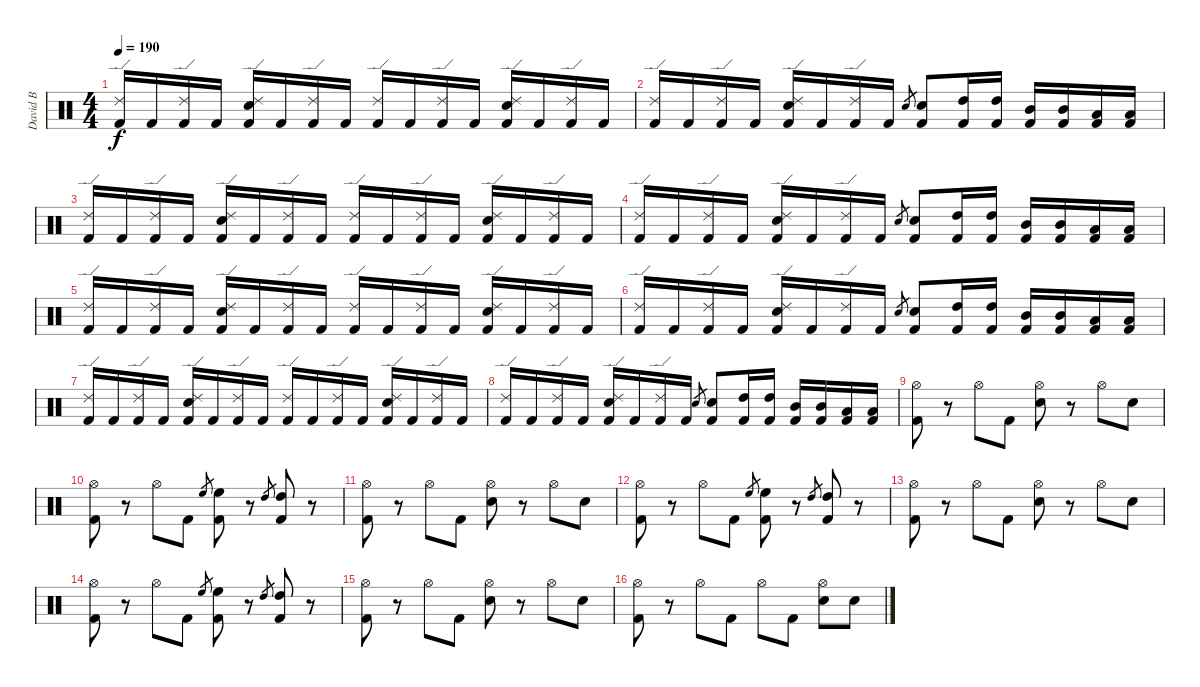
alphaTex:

\track ("David B" "David B") {instrument percussion}
\staff {score}
\articulation defaults
\ts (4 4)
\tempo 190
\clef neutral
\ks c
("Ride (edge) 2" "Kick (hit) 2").16{dy f} "Kick (hit) 2".16 ("Ride (edge) 2" "Kick (hit) 2").16 "Kick (hit) 2".16 ("Ride (edge) 2" "Electric Snare (hit)" "Kick (hit) 2").16 "Kick (hit) 2".16 ("Ride (edge) 2" "Kick (hit) 2").16 "Kick (hit) 2".16 ("Ride (edge) 2" "Kick (hit) 2").16 "Kick (hit) 2".16 ("Ride (edge) 2" "Kick (hit) 2").16 "Kick (hit) 2".16 ("Ride (edge) 2" "Electric Snare (hit)" "Kick (hit) 2").16 "Kick (hit) 2".16 ("Ride (edge) 2" "Kick (hit) 2").16 "Kick (hit) 2".16 |
("Ride (edge) 2" "Kick (hit) 2").16 "Kick (hit) 2".16 ("Ride (edge) 2" "Kick (hit) 2").16 "Kick (hit) 2".16 ("Ride (edge) 2" "Electric Snare (hit)" "Kick (hit) 2").16 "Kick (hit) 2".16 ("Ride (edge) 2" "Kick (hit) 2").16 "Kick (hit) 2".16 "Electric Snare (hit)".8{gr} ("Electric Snare (hit)" "Kick (hit) 2").8 ("High Tom (hit)" "Kick (hit) 2").16 ("High Tom (hit)" "Kick (hit) 2").16 ("Mid Tom (hit)" "Kick (hit) 2").16 ("Mid Tom (hit)" "Kick (hit) 2").16 ("Low Tom (hit)" "Kick (hit) 2").16 ("Low Tom (hit)" "Kick (hit) 2").16 |
("Ride (edge) 2" "Kick (hit) 2").16 "Kick (hit) 2".16 ("Ride (edge) 2" "Kick (hit) 2").16 "Kick (hit) 2".16 ("Ride (edge) 2" "Electric Snare (hit)" "Kick (hit) 2").16 "Kick (hit) 2".16 ("Ride (edge) 2" "Kick (hit) 2").16 "Kick (hit) 2".16 ("Ride (edge) 2" "Kick (hit) 2").16 "Kick (hit) 2".16 ("Ride (edge) 2" "Kick (hit) 2").16 "Kick (hit) 2".16 ("Ride (edge) 2" "Electric Snare (hit)" "Kick (hit) 2").16 "Kick (hit) 2".16 ("Ride (edge) 2" "Kick (hit) 2").16 "Kick (hit) 2".16 |
("Ride (edge) 2" "Kick (hit) 2").16 "Kick (hit) 2".16 ("Ride (edge) 2" "Kick (hit) 2").16 "Kick (hit) 2".16 ("Ride (edge) 2" "Electric Snare (hit)" "Kick (hit) 2").16 "Kick (hit) 2".16 ("Ride (edge) 2" "Kick (hit) 2").16 "Kick (hit) 2".16 "Electric Snare (hit)".8{gr} ("Electric Snare (hit)" "Kick (hit) 2").8 ("High Tom (hit)" "Kick (hit) 2").16 ("High Tom (hit)" "Kick (hit) 2").16 ("Mid Tom (hit)" "Kick (hit) 2").16 ("Mid Tom (hit)" "Kick (hit) 2").16 ("Low Tom (hit)" "Kick (hit) 2").16 ("Low Tom (hit)" "Kick (hit) 2").16 |
("Ride (edge) 2" "Kick (hit) 2").16 "Kick (hit) 2".16 ("Ride (edge) 2" "Kick (hit) 2").16 "Kick (hit) 2".16 ("Ride (edge) 2" "Electric Snare (hit)" "Kick (hit) 2").16 "Kick (hit) 2".16 ("Ride (edge) 2" "Kick (hit) 2").16 "Kick (hit) 2".16 ("Ride (edge) 2" "Kick (hit) 2").16 "Kick (hit) 2".16 ("Ride (edge) 2" "Kick (hit) 2").16 "Kick (hit) 2".16 ("Ride (edge) 2" "Electric Snare (hit)" "Kick (hit) 2").16 "Kick (hit) 2".16 ("Ride (edge) 2" "Kick (hit) 2").16 "Kick (hit) 2".16 |
("Ride (edge) 2" "Kick (hit) 2").16 "Kick (hit) 2".16 ("Ride (edge) 2" "Kick (hit) 2").16 "Kick (hit) 2".16 ("Ride (edge) 2" "Electric Snare (hit)" "Kick (hit) 2").16 "Kick (hit) 2".16 ("Ride (edge) 2" "Kick (hit) 2").16 "Kick (hit) 2".16 "Electric Snare (hit)".8{gr} ("Electric Snare (hit)" "Kick (hit) 2").8 ("High Tom (hit)" "Kick (hit) 2").16 ("High Tom (hit)" "Kick (hit) 2").16 ("Mid Tom (hit)" "Kick (hit) 2").16 ("Mid Tom (hit)" "Kick (hit) 2").16 ("Low Tom (hit)" "Kick (hit) 2").16 ("Low Tom (hit)" "Kick (hit) 2").16 |
("Ride (edge) 2" "Kick (hit) 2").16 "Kick (hit) 2".16 ("Ride (edge) 2" "Kick (hit) 2").16 "Kick (hit) 2".16 ("Ride (edge) 2" "Electric Snare (hit)" "Kick (hit) 2").16 "Kick (hit) 2".16 ("Ride (edge) 2" "Kick (hit) 2").16 "Kick (hit) 2".16 ("Ride (edge) 2" "Kick (hit) 2").16 "Kick (hit) 2".16 ("Ride (edge) 2" "Kick (hit) 2").16 "Kick (hit) 2".16 ("Ride (edge) 2" "Electric Snare (hit)" "Kick (hit) 2").16 "Kick (hit) 2".16 ("Ride (edge) 2" "Kick (hit) 2").16 "Kick (hit) 2".16 |
("Ride (edge) 2" "Kick (hit) 2").16 "Kick (hit) 2".16 ("Ride (edge) 2" "Kick (hit) 2").16 "Kick (hit) 2".16 ("Ride (edge) 2" "Electric Snare (hit)" "Kick (hit) 2").16 "Kick (hit) 2".16 ("Ride (edge) 2" "Kick (hit) 2").16 "Kick (hit) 2".16 "Electric Snare (hit)".8{gr} ("Electric Snare (hit)" "Kick (hit) 2").8 ("High Tom (hit)" "Kick (hit) 2").16 ("High Tom (hit)" "Kick (hit) 2").16 ("Mid Tom (hit)" "Kick (hit) 2").16 ("Mid Tom (hit)" "Kick (hit) 2").16 ("Low Tom (hit)" "Kick (hit) 2").16 ("Low Tom (hit)" "Kick (hit) 2").16 |
("Hi-Hat (open)" "Kick (hit) 2").8 r.8 "Hi-Hat (open)".8 "Kick (hit) 2".8 ("Hi-Hat (open)" "Electric Snare (hit)").8 r.8 "Hi-Hat (open)".8 "Electric Snare (hit)".8 |
("Hi-Hat (open)" "Kick (hit) 2").8 r.8 "Hi-Hat (open)".8 "Kick (hit) 2".8 "High Floor Tom (hit)".8{gr} ("High Floor Tom (hit)" "Kick (hit) 2").8 r.8 "High Tom (hit)".8{gr} ("High Tom (hit)" "Kick (hit) 2").8 r.8 |
("Hi-Hat (open)" "Kick (hit) 2").8 r.8 "Hi-Hat (open)".8 "Kick (hit) 2".8 ("Hi-Hat (open)" "Electric Snare (hit)").8 r.8 "Hi-Hat (open)".8 "Electric Snare (hit)".8 |
("Hi-Hat (open)" "Kick (hit) 2").8 r.8 "Hi-Hat (open)".8 "Kick (hit) 2".8 "High Floor Tom (hit)".8{gr} ("High Floor Tom (hit)" "Kick (hit) 2").8 r.8 "High Tom (hit)".8{gr} ("High Tom (hit)" "Kick (hit) 2").8 r.8 |
("Hi-Hat (open)" "Kick (hit) 2").8 r.8 "Hi-Hat (open)".8 "Kick (hit) 2".8 ("Hi-Hat (open)" "Electric Snare (hit)").8 r.8 "Hi-Hat (open)".8 "Electric Snare (hit)".8 |
("Hi-Hat (open)" "Kick (hit) 2").8 r.8 "Hi-Hat (open)".8 "Kick (hit) 2".8 "High Floor Tom (hit)".8{gr} ("High Floor Tom (hit)" "Kick (hit) 2").8 r.8 "High Tom (hit)".8{gr} ("High Tom (hit)" "Kick (hit) 2").8 r.8 |
("Hi-Hat (open)" "Kick (hit) 2").8 r.8 "Hi-Hat (open)".8 "Kick (hit) 2".8 ("Hi-Hat (open)" "Electric Snare (hit)").8 r.8 "Hi-Hat (open)".8 "Electric Snare (hit)".8 |
("Hi-Hat (open)" "Kick (hit) 2").8 r.8 "Hi-Hat (open)".8 "Kick (hit) 2".8 "Hi-Hat (open)".8 "Kick (hit) 2".8 ("Hi-Hat (open)" "Electric Snare (hit)").8 "Electric Snare (hit)".8
